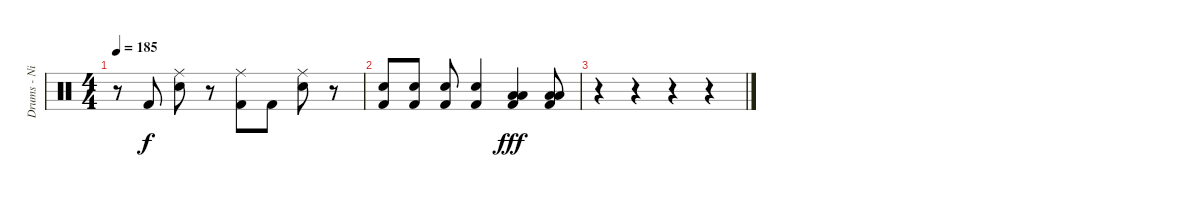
\track ("Drums - Nicko" "Drums - Ni") {instrument percussion}
\staff {score}
\articulation defaults
\ts (4 4)
\tempo 185
\clef neutral
\ks c
r.8{dy f} "Kick (hit) 2".8 ("Ride (middle)" "Snare (hit) 2").8 r.8 ("Ride (middle)" "Kick (hit) 2").8 "Kick (hit) 2".8 ("Ride (middle)" "Snare (hit) 2").8 r.8 |
("Snare (hit) 2" "Kick (hit) 2").8 ("Snare (hit) 2" "Kick (hit) 2").8 ("Snare (hit) 2" "Kick (hit) 2").8 ("Snare (hit) 2" "Kick (hit) 2").4 ("Low Tom (hit)" "Low Floor Tom (hit)" "Kick (hit) 2").4{dy fff} ("Low Tom (hit)" "Low Floor Tom (hit)" "Kick (hit) 2").8 |
r.4 r.4 r.4 r.4
